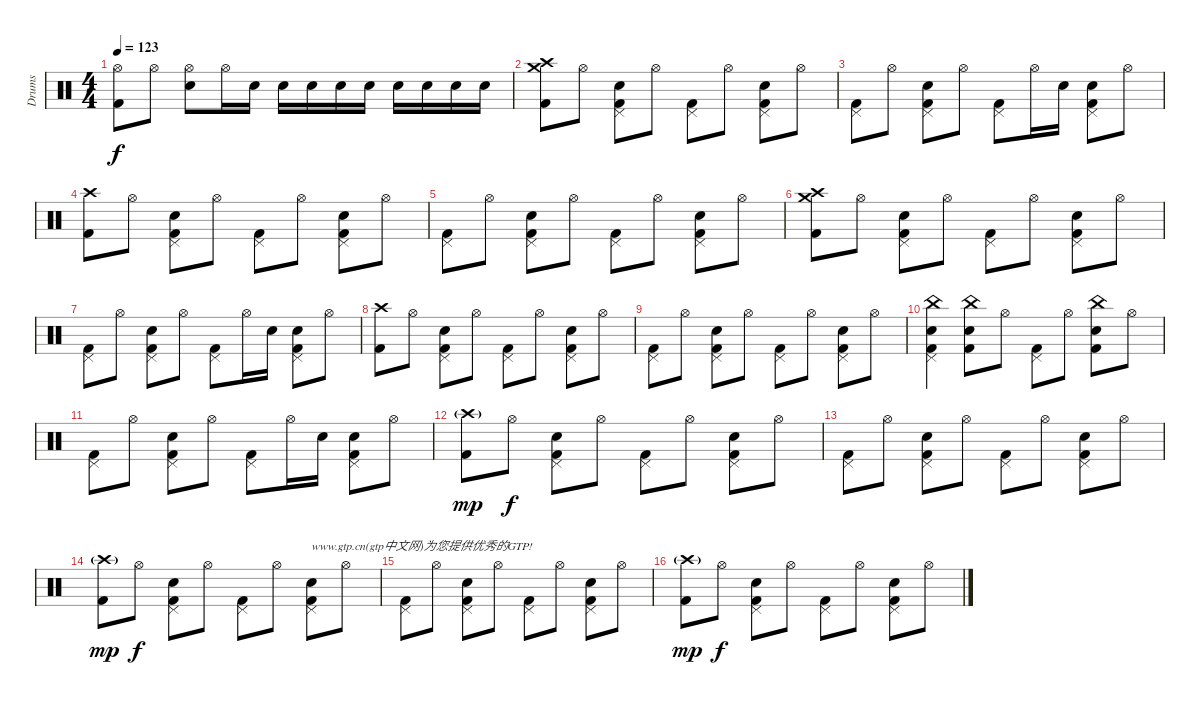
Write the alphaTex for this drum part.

\track ("Drums" "Drums") {instrument percussion}
\staff {score}
\articulation defaults
\ts (4 4)
\tempo 123
\clef neutral
\ks c
("Hi-Hat (open)" "Kick (hit) 2").8{dy f} "Hi-Hat (open)".8 ("Hi-Hat (open)" "Snare (hit) 2").8 "Hi-Hat (open)".16 "Snare (hit) 2".16 "Snare (hit) 2".16 "Snare (hit) 2".16 "Snare (hit) 2".16 "Snare (hit) 2".16 "Snare (hit) 2".16 "Snare (hit) 2".16 "Snare (hit) 2".16 "Snare (hit) 2".16 |
("Crash high (hit)" "Crash medium (hit)" "Kick (hit) 2").8 "Hi-Hat (open)".8 ("Pedal Hi-Hat (hit)" "Snare (hit) 2" "Kick (hit) 2").8 "Hi-Hat (open)".8 ("Pedal Hi-Hat (hit)" "Kick (hit) 2").8 "Hi-Hat (open)".8 ("Pedal Hi-Hat (hit)" "Snare (hit) 2" "Kick (hit) 2").8 "Hi-Hat (open)".8 |
("Pedal Hi-Hat (hit)" "Kick (hit) 2").8 "Hi-Hat (open)".8 ("Pedal Hi-Hat (hit)" "Snare (hit) 2" "Kick (hit) 2").8 "Hi-Hat (open)".8 ("Pedal Hi-Hat (hit)" "Kick (hit) 2").8 "Hi-Hat (open)".16 "Snare (hit) 2".16 ("Pedal Hi-Hat (hit)" "Snare (hit) 2" "Kick (hit) 2").8 "Hi-Hat (open)".8 |
("Crash high (hit)" "Kick (hit) 2").8 "Hi-Hat (open)".8 ("Pedal Hi-Hat (hit)" "Snare (hit) 2" "Kick (hit) 2").8 "Hi-Hat (open)".8 ("Pedal Hi-Hat (hit)" "Kick (hit) 2").8 "Hi-Hat (open)".8 ("Pedal Hi-Hat (hit)" "Snare (hit) 2" "Kick (hit) 2").8 "Hi-Hat (open)".8 |
("Pedal Hi-Hat (hit)" "Kick (hit) 2").8 "Hi-Hat (open)".8 ("Pedal Hi-Hat (hit)" "Snare (hit) 2" "Kick (hit) 2").8 "Hi-Hat (open)".8 ("Pedal Hi-Hat (hit)" "Kick (hit) 2").8 "Hi-Hat (open)".8 ("Pedal Hi-Hat (hit)" "Snare (hit) 2" "Kick (hit) 2").8 "Hi-Hat (open)".8 |
("Crash high (hit)" "Crash medium (hit)" "Kick (hit) 2").8 "Hi-Hat (open)".8 ("Pedal Hi-Hat (hit)" "Snare (hit) 2" "Kick (hit) 2").8 "Hi-Hat (open)".8 ("Pedal Hi-Hat (hit)" "Kick (hit) 2").8 "Hi-Hat (open)".8 ("Pedal Hi-Hat (hit)" "Snare (hit) 2" "Kick (hit) 2").8 "Hi-Hat (open)".8 |
("Pedal Hi-Hat (hit)" "Kick (hit) 2").8 "Hi-Hat (open)".8 ("Pedal Hi-Hat (hit)" "Snare (hit) 2" "Kick (hit) 2").8 "Hi-Hat (open)".8 ("Pedal Hi-Hat (hit)" "Kick (hit) 2").8 "Hi-Hat (open)".16 "Snare (hit) 2".16 ("Pedal Hi-Hat (hit)" "Snare (hit) 2" "Kick (hit) 2").8 "Hi-Hat (open)".8 |
("Crash high (hit)" "Kick (hit) 2").8 "Hi-Hat (open)".8 ("Pedal Hi-Hat (hit)" "Snare (hit) 2" "Kick (hit) 2").8 "Hi-Hat (open)".8 ("Pedal Hi-Hat (hit)" "Kick (hit) 2").8 "Hi-Hat (open)".8 ("Pedal Hi-Hat (hit)" "Snare (hit) 2" "Kick (hit) 2").8 "Hi-Hat (open)".8 |
("Pedal Hi-Hat (hit)" "Kick (hit) 2").8 "Hi-Hat (open)".8 ("Pedal Hi-Hat (hit)" "Snare (hit) 2" "Kick (hit) 2").8 "Hi-Hat (open)".8 ("Pedal Hi-Hat (hit)" "Kick (hit) 2").8 "Hi-Hat (open)".8 ("Pedal Hi-Hat (hit)" "Snare (hit) 2" "Kick (hit) 2").8 "Hi-Hat (open)".8 |
("China (hit)" "Snare (hit) 2" "Pedal Hi-Hat (hit)" "Kick (hit) 2").4 ("China (hit)" "Snare (hit) 2" "Kick (hit) 2").8 "Hi-Hat (open)".8 ("Pedal Hi-Hat (hit)" "Kick (hit) 2").8 "Hi-Hat (open)".8 ("China (hit)" "Snare (hit) 2" "Kick (hit) 2").8 "Hi-Hat (open)".8 |
("Pedal Hi-Hat (hit)" "Kick (hit) 2").8 "Hi-Hat (open)".8 ("Pedal Hi-Hat (hit)" "Snare (hit) 2" "Kick (hit) 2").8 "Hi-Hat (open)".8 ("Pedal Hi-Hat (hit)" "Kick (hit) 2").8 "Hi-Hat (open)".16 "Snare (hit) 2".16 ("Pedal Hi-Hat (hit)" "Snare (hit) 2" "Kick (hit) 2").8 "Hi-Hat (open)".8 |
("Crash high (hit)"{g} "Kick (hit) 2").8{dy mp} "Hi-Hat (open)".8{dy f} ("Pedal Hi-Hat (hit)" "Snare (hit) 2" "Kick (hit) 2").8 "Hi-Hat (open)".8 ("Pedal Hi-Hat (hit)" "Kick (hit) 2").8 "Hi-Hat (open)".8 ("Pedal Hi-Hat (hit)" "Snare (hit) 2" "Kick (hit) 2").8 "Hi-Hat (open)".8 |
("Pedal Hi-Hat (hit)" "Kick (hit) 2").8 "Hi-Hat (open)".8 ("Pedal Hi-Hat (hit)" "Snare (hit) 2" "Kick (hit) 2").8 "Hi-Hat (open)".8 ("Pedal Hi-Hat (hit)" "Kick (hit) 2").8 "Hi-Hat (open)".8 ("Pedal Hi-Hat (hit)" "Snare (hit) 2" "Kick (hit) 2").8 "Hi-Hat (open)".8 |
("Crash high (hit)"{g} "Kick (hit) 2").8{dy mp} "Hi-Hat (open)".8{dy f} ("Pedal Hi-Hat (hit)" "Snare (hit) 2" "Kick (hit) 2").8 "Hi-Hat (open)".8 ("Pedal Hi-Hat (hit)" "Kick (hit) 2").8 "Hi-Hat (open)".8 ("Pedal Hi-Hat (hit)" "Snare (hit) 2" "Kick (hit) 2").8{txt "www.gtp.cn(gtp中文网)为您提供优秀的GTP!"} "Hi-Hat (open)".8 |
("Pedal Hi-Hat (hit)" "Kick (hit) 2").8 "Hi-Hat (open)".8 ("Pedal Hi-Hat (hit)" "Snare (hit) 2" "Kick (hit) 2").8 "Hi-Hat (open)".8 ("Pedal Hi-Hat (hit)" "Kick (hit) 2").8 "Hi-Hat (open)".8 ("Pedal Hi-Hat (hit)" "Snare (hit) 2" "Kick (hit) 2").8 "Hi-Hat (open)".8 |
("Crash high (hit)"{g} "Kick (hit) 2").8{dy mp} "Hi-Hat (open)".8{dy f} ("Pedal Hi-Hat (hit)" "Snare (hit) 2" "Kick (hit) 2").8 "Hi-Hat (open)".8 ("Pedal Hi-Hat (hit)" "Kick (hit) 2").8 "Hi-Hat (open)".8 ("Pedal Hi-Hat (hit)" "Snare (hit) 2" "Kick (hit) 2").8 "Hi-Hat (open)".8
